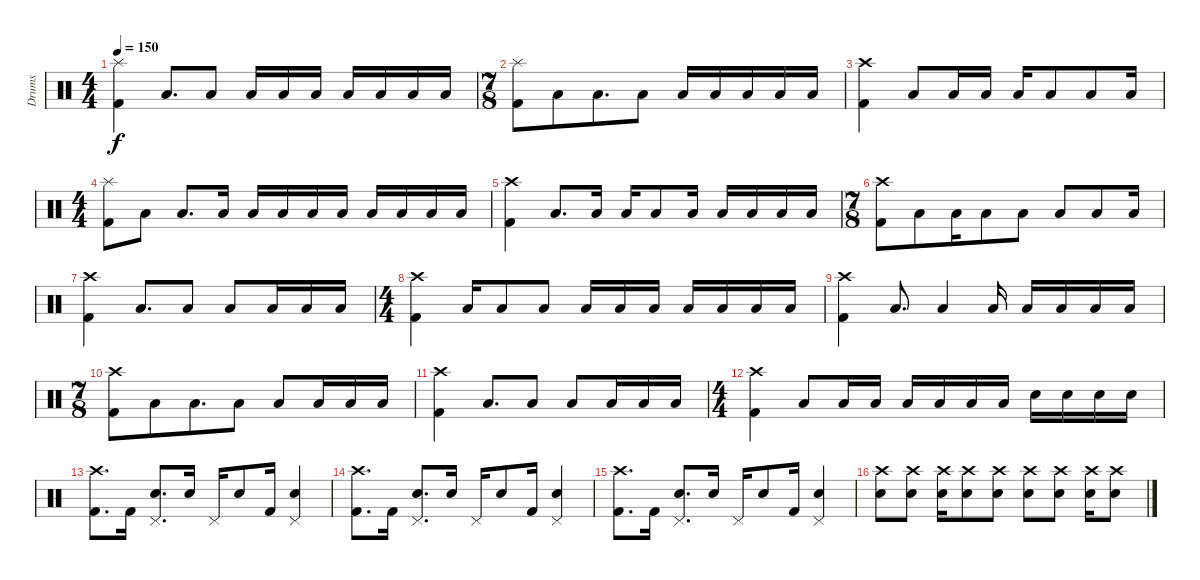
\track ("Drums" "Drums") {instrument percussion}
\staff {score}
\articulation defaults
\ts (4 4)
\tempo 150
\clef neutral
\ks c
("Kick (hit) 2" "Splash (hit)").4{dy f} "Low Tom (hit)".8{d} "Low Tom (hit)".8 "Low Tom (hit)".16 "Low Tom (hit)".16 "Low Tom (hit)".16 "Low Tom (hit)".16 "Low Tom (hit)".16 "Low Tom (hit)".16 "Low Tom (hit)".16 |
\ts (7 8)
("Kick (hit) 2" "Splash (hit)").8 "Low Tom (hit)".8 "Low Tom (hit)".8{d} "Low Tom (hit)".8 "Low Tom (hit)".16 "Low Tom (hit)".16 "Low Tom (hit)".16 "Low Tom (hit)".16 "Low Tom (hit)".16 |
("Kick (hit) 2" "Crash high (hit)").4 "Low Tom (hit)".8 "Low Tom (hit)".16 "Low Tom (hit)".16 "Low Tom (hit)".16 "Low Tom (hit)".8 "Low Tom (hit)".8 "Low Tom (hit)".16 |
\ts (4 4)
("Kick (hit) 2" "Splash (hit)").8 "Low Tom (hit)".8 "Low Tom (hit)".8{d} "Low Tom (hit)".16 "Low Tom (hit)".16 "Low Tom (hit)".16 "Low Tom (hit)".16 "Low Tom (hit)".16 "Low Tom (hit)".16 "Low Tom (hit)".16 "Low Tom (hit)".16 "Low Tom (hit)".16 |
("Kick (hit) 2" "Crash high (hit)").4 "Low Tom (hit)".8{d} "Low Tom (hit)".16 "Low Tom (hit)".16 "Low Tom (hit)".8 "Low Tom (hit)".16 "Low Tom (hit)".16 "Low Tom (hit)".16 "Low Tom (hit)".16 "Low Tom (hit)".16 |
\ts (7 8)
("Kick (hit) 2" "Crash high (hit)").8 "Low Tom (hit)".8 "Low Tom (hit)".16 "Low Tom (hit)".8 "Low Tom (hit)".8 "Low Tom (hit)".8 "Low Tom (hit)".8 "Low Tom (hit)".16 |
("Kick (hit) 2" "Crash high (hit)").4 "Low Tom (hit)".8{d} "Low Tom (hit)".8 "Low Tom (hit)".8 "Low Tom (hit)".16 "Low Tom (hit)".16 "Low Tom (hit)".16 |
\ts (4 4)
("Kick (hit) 2" "Crash high (hit)").4 "Low Tom (hit)".16 "Low Tom (hit)".8 "Low Tom (hit)".8 "Low Tom (hit)".16 "Low Tom (hit)".16 "Low Tom (hit)".16 "Low Tom (hit)".16 "Low Tom (hit)".16 "Low Tom (hit)".16 "Low Tom (hit)".16 |
("Kick (hit) 2" "Crash high (hit)").4 "Low Tom (hit)".8{d} "Low Tom (hit)".4 "Low Tom (hit)".16 "Low Tom (hit)".16 "Low Tom (hit)".16 "Low Tom (hit)".16 "Low Tom (hit)".16 |
\ts (7 8)
("Kick (hit) 2" "Crash high (hit)").8 "Low Tom (hit)".8 "Low Tom (hit)".8{d} "Low Tom (hit)".8 "Low Tom (hit)".8 "Low Tom (hit)".16 "Low Tom (hit)".16 "Low Tom (hit)".16 |
("Kick (hit) 2" "Crash high (hit)").4 "Low Tom (hit)".8{d} "Low Tom (hit)".8 "Low Tom (hit)".8 "Low Tom (hit)".16 "Low Tom (hit)".16 "Low Tom (hit)".16 |
\ts (4 4)
("Kick (hit) 2" "Crash high (hit)").4 "Low Tom (hit)".8 "Low Tom (hit)".16 "Low Tom (hit)".16 "Low Tom (hit)".16 "Low Tom (hit)".16 "Low Tom (hit)".16 "Low Tom (hit)".16 "Electric Snare (hit)".16 "Electric Snare (hit)".16 "Electric Snare (hit)".16 "Electric Snare (hit)".16 |
("Kick (hit) 2" "Crash high (hit)").8{d} "Kick (hit) 2".16 ("Electric Snare (hit)" "Pedal Hi-Hat (hit)").8{d} "Electric Snare (hit)".16 "Pedal Hi-Hat (hit)".16 "Electric Snare (hit)".8 "Kick (hit) 2".16 ("Electric Snare (hit)" "Pedal Hi-Hat (hit)").4 |
("Kick (hit) 2" "Crash high (hit)").8{d} "Kick (hit) 2".16 ("Electric Snare (hit)" "Pedal Hi-Hat (hit)").8{d} "Electric Snare (hit)".16 "Pedal Hi-Hat (hit)".16 "Electric Snare (hit)".8 "Kick (hit) 2".16 ("Electric Snare (hit)" "Pedal Hi-Hat (hit)").4 |
("Kick (hit) 2" "Crash high (hit)").8{d} "Kick (hit) 2".16 ("Electric Snare (hit)" "Pedal Hi-Hat (hit)").8{d} "Electric Snare (hit)".16 "Pedal Hi-Hat (hit)".16 "Electric Snare (hit)".8 "Kick (hit) 2".16 ("Electric Snare (hit)" "Pedal Hi-Hat (hit)").4 |
("Electric Snare (hit)" "Crash high (hit)").8 ("Electric Snare (hit)" "Crash high (hit)").8 ("Electric Snare (hit)" "Crash high (hit)").16 ("Electric Snare (hit)" "Crash high (hit)").8 ("Electric Snare (hit)" "Crash high (hit)").8 ("Electric Snare (hit)" "Crash high (hit)").8 ("Electric Snare (hit)" "Crash high (hit)").8 ("Electric Snare (hit)" "Crash high (hit)").16 ("Electric Snare (hit)" "Crash high (hit)").8
